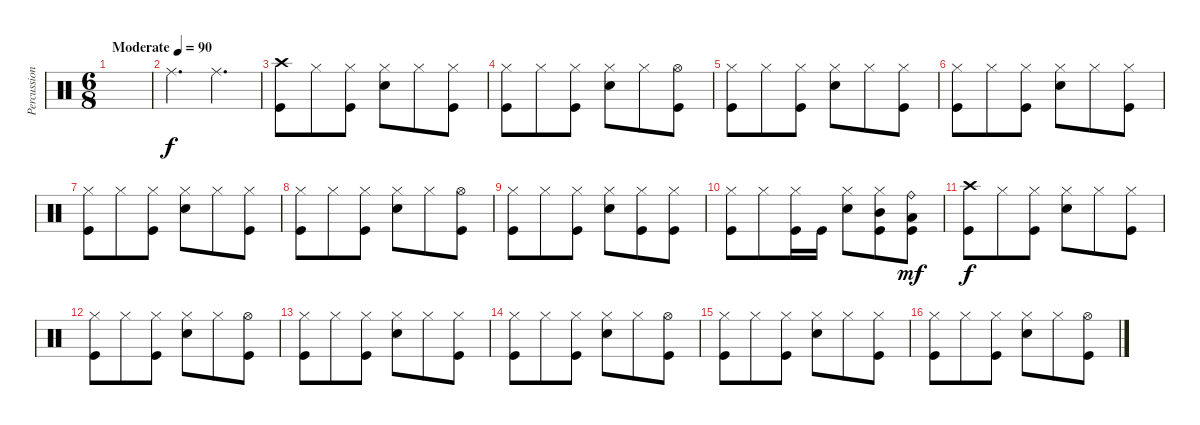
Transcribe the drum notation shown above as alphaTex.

\track ("Percussion" "Percussion") {instrument percussion}
\staff {score}
\articulation defaults
\ts (6 8)
\tempo (90 "Moderate")
\clef neutral
\ks c
|
"Ride (middle)".4{d} "Ride (middle)".4{d} |
("Kick (hit)" "Crash high (hit)").8 "Hi-Hat (closed)".8 ("Hi-Hat (closed)" "Kick (hit)").8 ("Electric Snare (hit)" "Hi-Hat (closed)").8 "Hi-Hat (closed)".8 ("Kick (hit)" "Hi-Hat (closed)").8 |
("Kick (hit)" "Hi-Hat (closed)").8 "Hi-Hat (closed)".8 ("Hi-Hat (closed)" "Kick (hit)").8 ("Electric Snare (hit)" "Hi-Hat (closed)").8 "Hi-Hat (closed)".8 ("Kick (hit)" "Hi-Hat (open)").8 |
("Kick (hit)" "Hi-Hat (closed)").8 "Hi-Hat (closed)".8 ("Kick (hit)" "Hi-Hat (closed)").8 ("Electric Snare (hit)" "Hi-Hat (closed)").8 "Hi-Hat (closed)".8 ("Kick (hit)" "Hi-Hat (closed)").8 |
("Kick (hit)" "Hi-Hat (closed)").8 "Hi-Hat (closed)".8 ("Kick (hit)" "Hi-Hat (closed)").8 ("Electric Snare (hit)" "Hi-Hat (closed)").8 "Hi-Hat (closed)".8 ("Kick (hit)" "Hi-Hat (closed)").8 |
("Kick (hit)" "Hi-Hat (closed)").8 "Hi-Hat (closed)".8 ("Kick (hit)" "Hi-Hat (closed)").8 ("Electric Snare (hit)" "Hi-Hat (closed)").8 "Hi-Hat (closed)".8 ("Kick (hit)" "Hi-Hat (closed)").8 |
("Kick (hit)" "Hi-Hat (closed)").8 "Hi-Hat (closed)".8 ("Kick (hit)" "Hi-Hat (closed)").8 ("Electric Snare (hit)" "Hi-Hat (closed)").8 "Hi-Hat (closed)".8 ("Kick (hit)" "Hi-Hat (open)").8 |
("Kick (hit)" "Hi-Hat (closed)").8 "Hi-Hat (closed)".8 ("Kick (hit)" "Hi-Hat (closed)").8 ("Electric Snare (hit)" "Hi-Hat (closed)").8 ("Kick (hit)" "Hi-Hat (closed)").8 ("Kick (hit)" "Hi-Hat (closed)").8 |
("Kick (hit)" "Hi-Hat (closed)").8 "Hi-Hat (closed)".8 ("Kick (hit)" "Hi-Hat (closed)").16 "Kick (hit)".16 ("Electric Snare (hit)" "Hi-Hat (closed)").8 ("Mid Tom (hit)" "Kick (hit)" "Hi-Hat (closed)").8 ("Low Tom (hit)" "Kick (hit)" "Ride (bell)").8{dy mf} |
("Kick (hit)" "Crash high (hit)").8{dy f} "Hi-Hat (closed)".8 ("Hi-Hat (closed)" "Kick (hit)").8 ("Electric Snare (hit)" "Hi-Hat (closed)").8 "Hi-Hat (closed)".8 ("Kick (hit)" "Hi-Hat (closed)").8 |
("Kick (hit)" "Hi-Hat (closed)").8 "Hi-Hat (closed)".8 ("Hi-Hat (closed)" "Kick (hit)").8 ("Electric Snare (hit)" "Hi-Hat (closed)").8 "Hi-Hat (closed)".8 ("Kick (hit)" "Hi-Hat (open)").8 |
("Kick (hit)" "Hi-Hat (closed)").8 "Hi-Hat (closed)".8 ("Kick (hit)" "Hi-Hat (closed)").8 ("Electric Snare (hit)" "Hi-Hat (closed)").8 "Hi-Hat (closed)".8 ("Kick (hit)" "Hi-Hat (closed)").8 |
("Kick (hit)" "Hi-Hat (closed)").8 "Hi-Hat (closed)".8 ("Kick (hit)" "Hi-Hat (closed)").8 ("Electric Snare (hit)" "Hi-Hat (closed)").8 "Hi-Hat (closed)".8 ("Kick (hit)" "Hi-Hat (open)").8 |
("Kick (hit)" "Hi-Hat (closed)").8 "Hi-Hat (closed)".8 ("Kick (hit)" "Hi-Hat (closed)").8 ("Electric Snare (hit)" "Hi-Hat (closed)").8 "Hi-Hat (closed)".8 ("Kick (hit)" "Hi-Hat (closed)").8 |
("Kick (hit)" "Hi-Hat (closed)").8 "Hi-Hat (closed)".8 ("Kick (hit)" "Hi-Hat (closed)").8 ("Electric Snare (hit)" "Hi-Hat (closed)").8 "Hi-Hat (closed)".8 ("Kick (hit)" "Hi-Hat (open)").8
